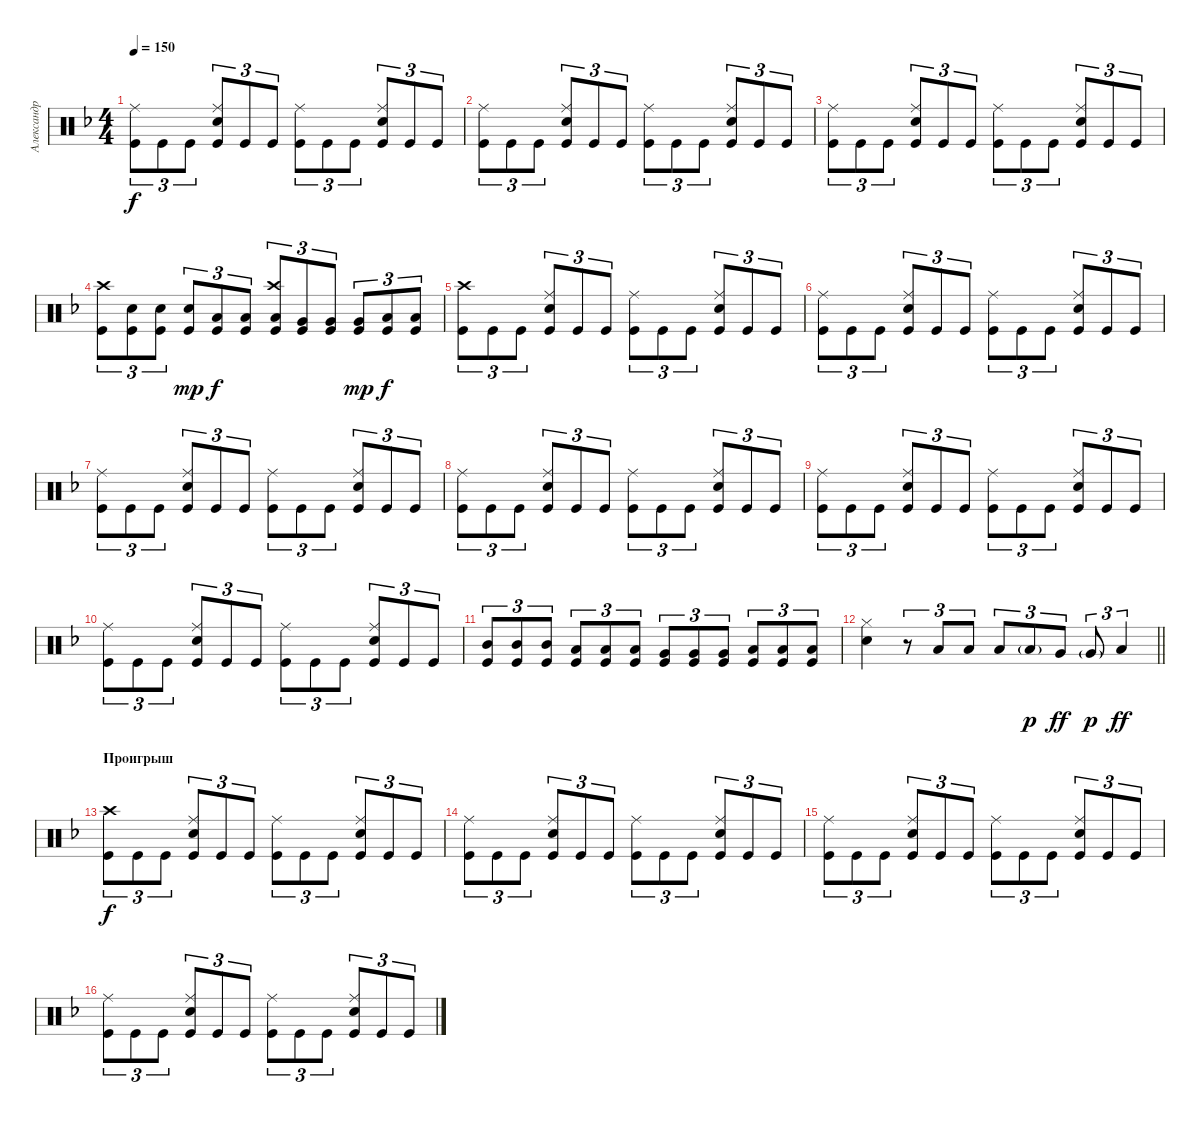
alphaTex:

\track ("Александр Манякин" "Александр ") {instrument percussion}
\staff {score}
\articulation defaults
\ts (4 4)
\tempo 150
\clef neutral
\ks dminor
("Kick (hit)" "Ride (middle)").8{tu (3 2) dy f} "Kick (hit)".8{tu (3 2)} "Kick (hit)".8{tu (3 2)} ("Snare (hit) 2" "Kick (hit)" "Ride (middle)").8{tu (3 2)} "Kick (hit)".8{tu (3 2)} "Kick (hit)".8{tu (3 2)} ("Kick (hit)" "Ride (middle)").8{tu (3 2)} "Kick (hit)".8{tu (3 2)} "Kick (hit)".8{tu (3 2)} ("Kick (hit)" "Snare (hit) 2" "Ride (middle)").8{tu (3 2)} "Kick (hit)".8{tu (3 2)} "Kick (hit)".8{tu (3 2)} |
("Kick (hit)" "Ride (middle)").8{tu (3 2)} "Kick (hit)".8{tu (3 2)} "Kick (hit)".8{tu (3 2)} ("Snare (hit) 2" "Kick (hit)" "Ride (middle)").8{tu (3 2)} "Kick (hit)".8{tu (3 2)} "Kick (hit)".8{tu (3 2)} ("Kick (hit)" "Ride (middle)").8{tu (3 2)} "Kick (hit)".8{tu (3 2)} "Kick (hit)".8{tu (3 2)} ("Kick (hit)" "Snare (hit) 2" "Ride (middle)").8{tu (3 2)} "Kick (hit)".8{tu (3 2)} "Kick (hit)".8{tu (3 2)} |
("Kick (hit)" "Ride (middle)").8{tu (3 2)} "Kick (hit)".8{tu (3 2)} "Kick (hit)".8{tu (3 2)} ("Snare (hit) 2" "Kick (hit)" "Ride (middle)").8{tu (3 2)} "Kick (hit)".8{tu (3 2)} "Kick (hit)".8{tu (3 2)} ("Kick (hit)" "Ride (middle)").8{tu (3 2)} "Kick (hit)".8{tu (3 2)} "Kick (hit)".8{tu (3 2)} ("Kick (hit)" "Snare (hit) 2" "Ride (middle)").8{tu (3 2)} "Kick (hit)".8{tu (3 2)} "Kick (hit)".8{tu (3 2)} |
("Kick (hit)" "Crash high (hit)").8{tu (3 2)} ("Snare (hit) 2" "Kick (hit)").8{tu (3 2)} ("Snare (hit) 2" "Kick (hit)").8{tu (3 2)} ("Snare (hit) 2" "Kick (hit)").8{tu (3 2) dy mp} ("Kick (hit)" "Low Tom (hit)").8{tu (3 2) dy f} ("Kick (hit)" "Low Tom (hit)").8{tu (3 2)} ("Kick (hit)" "Crash high (hit)" "Low Tom (hit)").8{tu (3 2)} ("Very Low Tom (hit)" "Kick (hit)").8{tu (3 2)} ("Very Low Tom (hit)" "Kick (hit)").8{tu (3 2)} ("Very Low Tom (hit)" "Kick (hit)").8{tu (3 2) dy mp} ("Low Floor Tom (hit)" "Kick (hit)").8{tu (3 2) dy f} ("Low Floor Tom (hit)" "Kick (hit)").8{tu (3 2)} |
("Kick (hit)" "Crash high (hit)").8{tu (3 2)} "Kick (hit)".8{tu (3 2)} "Kick (hit)".8{tu (3 2)} ("Snare (hit) 2" "Kick (hit)" "Ride (middle)").8{tu (3 2)} "Kick (hit)".8{tu (3 2)} "Kick (hit)".8{tu (3 2)} ("Kick (hit)" "Ride (middle)").8{tu (3 2)} "Kick (hit)".8{tu (3 2)} "Kick (hit)".8{tu (3 2)} ("Kick (hit)" "Snare (hit) 2" "Ride (middle)").8{tu (3 2)} "Kick (hit)".8{tu (3 2)} "Kick (hit)".8{tu (3 2)} |
("Kick (hit)" "Ride (middle)").8{tu (3 2)} "Kick (hit)".8{tu (3 2)} "Kick (hit)".8{tu (3 2)} ("Snare (hit) 2" "Kick (hit)" "Ride (middle)").8{tu (3 2)} "Kick (hit)".8{tu (3 2)} "Kick (hit)".8{tu (3 2)} ("Kick (hit)" "Ride (middle)").8{tu (3 2)} "Kick (hit)".8{tu (3 2)} "Kick (hit)".8{tu (3 2)} ("Kick (hit)" "Snare (hit) 2" "Ride (middle)").8{tu (3 2)} "Kick (hit)".8{tu (3 2)} "Kick (hit)".8{tu (3 2)} |
("Kick (hit)" "Ride (middle)").8{tu (3 2)} "Kick (hit)".8{tu (3 2)} "Kick (hit)".8{tu (3 2)} ("Snare (hit) 2" "Kick (hit)" "Ride (middle)").8{tu (3 2)} "Kick (hit)".8{tu (3 2)} "Kick (hit)".8{tu (3 2)} ("Kick (hit)" "Ride (middle)").8{tu (3 2)} "Kick (hit)".8{tu (3 2)} "Kick (hit)".8{tu (3 2)} ("Kick (hit)" "Snare (hit) 2" "Ride (middle)").8{tu (3 2)} "Kick (hit)".8{tu (3 2)} "Kick (hit)".8{tu (3 2)} |
("Kick (hit)" "Ride (middle)").8{tu (3 2)} "Kick (hit)".8{tu (3 2)} "Kick (hit)".8{tu (3 2)} ("Snare (hit) 2" "Kick (hit)" "Ride (middle)").8{tu (3 2)} "Kick (hit)".8{tu (3 2)} "Kick (hit)".8{tu (3 2)} ("Kick (hit)" "Ride (middle)").8{tu (3 2)} "Kick (hit)".8{tu (3 2)} "Kick (hit)".8{tu (3 2)} ("Kick (hit)" "Snare (hit) 2" "Ride (middle)").8{tu (3 2)} "Kick (hit)".8{tu (3 2)} "Kick (hit)".8{tu (3 2)} |
("Kick (hit)" "Ride (middle)").8{tu (3 2)} "Kick (hit)".8{tu (3 2)} "Kick (hit)".8{tu (3 2)} ("Snare (hit) 2" "Kick (hit)" "Ride (middle)").8{tu (3 2)} "Kick (hit)".8{tu (3 2)} "Kick (hit)".8{tu (3 2)} ("Kick (hit)" "Ride (middle)").8{tu (3 2)} "Kick (hit)".8{tu (3 2)} "Kick (hit)".8{tu (3 2)} ("Kick (hit)" "Snare (hit) 2" "Ride (middle)").8{tu (3 2)} "Kick (hit)".8{tu (3 2)} "Kick (hit)".8{tu (3 2)} |
("Kick (hit)" "Ride (middle)").8{tu (3 2)} "Kick (hit)".8{tu (3 2)} "Kick (hit)".8{tu (3 2)} ("Snare (hit) 2" "Kick (hit)" "Ride (middle)").8{tu (3 2)} "Kick (hit)".8{tu (3 2)} "Kick (hit)".8{tu (3 2)} ("Kick (hit)" "Ride (middle)").8{tu (3 2)} "Kick (hit)".8{tu (3 2)} "Kick (hit)".8{tu (3 2)} ("Kick (hit)" "Snare (hit) 2" "Ride (middle)").8{tu (3 2)} "Kick (hit)".8{tu (3 2)} "Kick (hit)".8{tu (3 2)} |
("Mid Tom (hit)" "Kick (hit)").8{tu (3 2)} ("Mid Tom (hit)" "Kick (hit)").8{tu (3 2)} ("Mid Tom (hit)" "Kick (hit)").8{tu (3 2)} ("Low Tom (hit)" "Kick (hit)").8{tu (3 2)} ("Low Tom (hit)" "Kick (hit)").8{tu (3 2)} ("Low Tom (hit)" "Kick (hit)").8{tu (3 2)} ("Very Low Tom (hit)" "Kick (hit)").8{tu (3 2)} ("Kick (hit)" "Very Low Tom (hit)").8{tu (3 2)} ("Very Low Tom (hit)" "Kick (hit)").8{tu (3 2)} ("Low Floor Tom (hit)" "Kick (hit)").8{tu (3 2)} ("Low Floor Tom (hit)" "Kick (hit)").8{tu (3 2)} ("Low Floor Tom (hit)" "Kick (hit)").8{tu (3 2)} |
\barLineRight lightlight
("Snare (hit) 2" "Hi-Hat (closed)").4 r.8{tu (3 2)} "Low Tom (hit)".8{tu (3 2)} "Low Tom (hit)".8{tu (3 2)} "Low Tom (hit)".8{tu (3 2)} "Low Tom (hit)"{g}.8{tu (3 2) dy p} "Very Low Tom (hit)".8{tu (3 2) dy ff} "Very Low Tom (hit)"{g}.8{tu (3 2) dy p} "Low Floor Tom (hit)".4{tu (3 2) dy ff} |
\section ("" "Проигрыш")
("Kick (hit)" "Crash high (hit)").8{tu (3 2) dy f} "Kick (hit)".8{tu (3 2)} "Kick (hit)".8{tu (3 2)} ("Snare (hit) 2" "Kick (hit)" "Ride (middle)").8{tu (3 2)} "Kick (hit)".8{tu (3 2)} "Kick (hit)".8{tu (3 2)} ("Kick (hit)" "Ride (middle)").8{tu (3 2)} "Kick (hit)".8{tu (3 2)} "Kick (hit)".8{tu (3 2)} ("Kick (hit)" "Snare (hit) 2" "Ride (middle)").8{tu (3 2)} "Kick (hit)".8{tu (3 2)} "Kick (hit)".8{tu (3 2)} |
("Kick (hit)" "Ride (middle)").8{tu (3 2)} "Kick (hit)".8{tu (3 2)} "Kick (hit)".8{tu (3 2)} ("Snare (hit) 2" "Kick (hit)" "Ride (middle)").8{tu (3 2)} "Kick (hit)".8{tu (3 2)} "Kick (hit)".8{tu (3 2)} ("Kick (hit)" "Ride (middle)").8{tu (3 2)} "Kick (hit)".8{tu (3 2)} "Kick (hit)".8{tu (3 2)} ("Kick (hit)" "Snare (hit) 2" "Ride (middle)").8{tu (3 2)} "Kick (hit)".8{tu (3 2)} "Kick (hit)".8{tu (3 2)} |
("Kick (hit)" "Ride (middle)").8{tu (3 2)} "Kick (hit)".8{tu (3 2)} "Kick (hit)".8{tu (3 2)} ("Snare (hit) 2" "Kick (hit)" "Ride (middle)").8{tu (3 2)} "Kick (hit)".8{tu (3 2)} "Kick (hit)".8{tu (3 2)} ("Kick (hit)" "Ride (middle)").8{tu (3 2)} "Kick (hit)".8{tu (3 2)} "Kick (hit)".8{tu (3 2)} ("Kick (hit)" "Snare (hit) 2" "Ride (middle)").8{tu (3 2)} "Kick (hit)".8{tu (3 2)} "Kick (hit)".8{tu (3 2)} |
("Kick (hit)" "Ride (middle)").8{tu (3 2)} "Kick (hit)".8{tu (3 2)} "Kick (hit)".8{tu (3 2)} ("Snare (hit) 2" "Kick (hit)" "Ride (middle)").8{tu (3 2)} "Kick (hit)".8{tu (3 2)} "Kick (hit)".8{tu (3 2)} ("Kick (hit)" "Ride (middle)").8{tu (3 2)} "Kick (hit)".8{tu (3 2)} "Kick (hit)".8{tu (3 2)} ("Kick (hit)" "Snare (hit) 2" "Ride (middle)").8{tu (3 2)} "Kick (hit)".8{tu (3 2)} "Kick (hit)".8{tu (3 2)}
